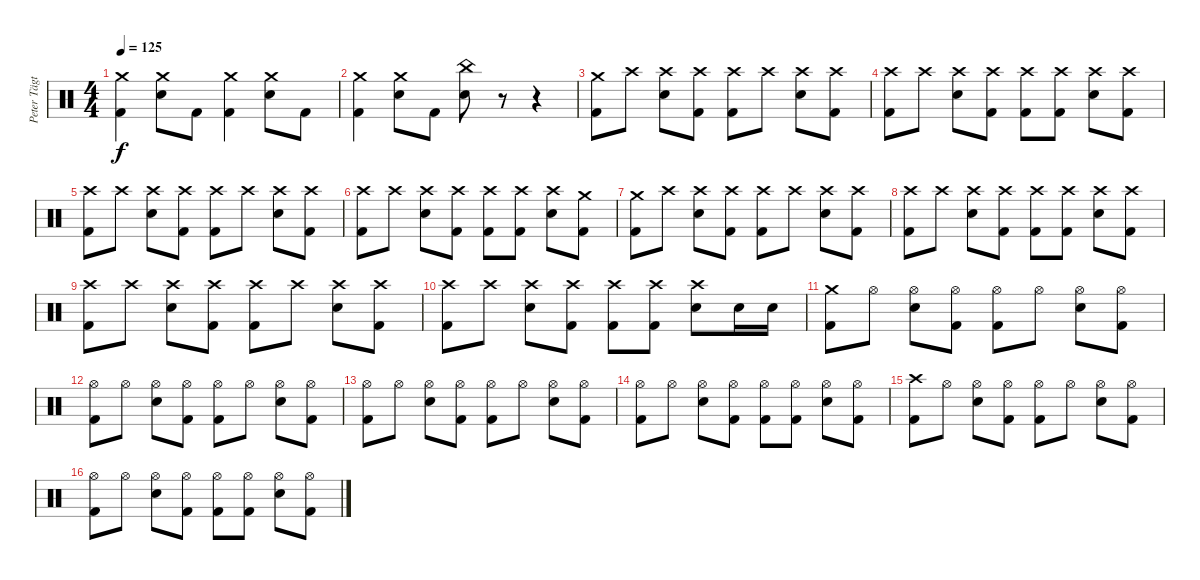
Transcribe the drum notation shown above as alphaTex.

\track ("Peter Tägtgren" "Peter Tägt") {instrument percussion}
\staff {score}
\articulation defaults
\ts (4 4)
\tempo 125
\clef neutral
\ks c
("Crash medium (hit)" "Kick (hit) 2").4{dy f} ("Crash medium (hit)" "Electric Snare (hit)").8 "Kick (hit) 2".8 ("Crash medium (hit)" "Kick (hit) 2").4 ("Crash medium (hit)" "Electric Snare (hit)").8 "Kick (hit) 2".8 |
("Crash medium (hit)" "Kick (hit) 2").4 ("Crash medium (hit)" "Electric Snare (hit)").8 "Kick (hit) 2".8 ("China (hit)" "Electric Snare (hit)").8 r.8 r.4 |
("Crash medium (hit)" "Kick (hit) 2").8 "Crash high (hit)".8 ("Crash high (hit)" "Electric Snare (hit)").8 ("Crash high (hit)" "Kick (hit) 2").8 ("Crash high (hit)" "Kick (hit) 2").8 "Crash high (hit)".8 ("Crash high (hit)" "Electric Snare (hit)").8 ("Crash high (hit)" "Kick (hit) 2").8 |
("Crash high (hit)" "Kick (hit) 2").8 "Crash high (hit)".8 ("Crash high (hit)" "Electric Snare (hit)").8 ("Crash high (hit)" "Kick (hit) 2").8 ("Crash high (hit)" "Kick (hit) 2").8 ("Crash high (hit)" "Kick (hit) 2").8 ("Crash high (hit)" "Electric Snare (hit)").8 ("Crash high (hit)" "Kick (hit) 2").8 |
("Crash high (hit)" "Kick (hit) 2").8 "Crash high (hit)".8 ("Crash high (hit)" "Electric Snare (hit)").8 ("Crash high (hit)" "Kick (hit) 2").8 ("Crash high (hit)" "Kick (hit) 2").8 "Crash high (hit)".8 ("Crash high (hit)" "Electric Snare (hit)").8 ("Crash high (hit)" "Kick (hit) 2").8 |
("Crash high (hit)" "Kick (hit) 2").8 "Crash high (hit)".8 ("Crash high (hit)" "Electric Snare (hit)").8 ("Crash high (hit)" "Kick (hit) 2").8 ("Crash high (hit)" "Kick (hit) 2").8 ("Crash high (hit)" "Kick (hit) 2").8 ("Crash high (hit)" "Electric Snare (hit)").8 ("Crash medium (hit)" "Kick (hit) 2").8 |
("Crash medium (hit)" "Kick (hit) 2").8 "Crash high (hit)".8 ("Crash high (hit)" "Electric Snare (hit)").8 ("Crash high (hit)" "Kick (hit) 2").8 ("Crash high (hit)" "Kick (hit) 2").8 "Crash high (hit)".8 ("Crash high (hit)" "Electric Snare (hit)").8 ("Crash high (hit)" "Kick (hit) 2").8 |
("Crash high (hit)" "Kick (hit) 2").8 "Crash high (hit)".8 ("Crash high (hit)" "Electric Snare (hit)").8 ("Crash high (hit)" "Kick (hit) 2").8 ("Crash high (hit)" "Kick (hit) 2").8 ("Crash high (hit)" "Kick (hit) 2").8 ("Crash high (hit)" "Electric Snare (hit)").8 ("Crash high (hit)" "Kick (hit) 2").8 |
("Crash high (hit)" "Kick (hit) 2").8 "Crash high (hit)".8 ("Crash high (hit)" "Electric Snare (hit)").8 ("Crash high (hit)" "Kick (hit) 2").8 ("Crash high (hit)" "Kick (hit) 2").8 "Crash high (hit)".8 ("Crash high (hit)" "Electric Snare (hit)").8 ("Crash high (hit)" "Kick (hit) 2").8 |
("Crash high (hit)" "Kick (hit) 2").8 "Crash high (hit)".8 ("Crash high (hit)" "Electric Snare (hit)").8 ("Crash high (hit)" "Kick (hit) 2").8 ("Crash high (hit)" "Kick (hit) 2").8 ("Crash high (hit)" "Kick (hit) 2").8 ("Crash high (hit)" "Electric Snare (hit)").8 "Electric Snare (hit)".16 "Electric Snare (hit)".16 |
("Crash medium (hit)" "Kick (hit) 2").8 "Hi-Hat (open)".8 ("Hi-Hat (open)" "Electric Snare (hit)").8 ("Hi-Hat (open)" "Kick (hit) 2").8 ("Hi-Hat (open)" "Kick (hit) 2").8 "Hi-Hat (open)".8 ("Hi-Hat (open)" "Electric Snare (hit)").8 ("Hi-Hat (open)" "Kick (hit) 2").8 |
("Hi-Hat (open)" "Kick (hit) 2").8 "Hi-Hat (open)".8 ("Hi-Hat (open)" "Electric Snare (hit)").8 ("Hi-Hat (open)" "Kick (hit) 2").8 ("Hi-Hat (open)" "Kick (hit) 2").8 "Hi-Hat (open)".8 ("Hi-Hat (open)" "Electric Snare (hit)").8 ("Hi-Hat (open)" "Kick (hit) 2").8 |
("Hi-Hat (open)" "Kick (hit) 2").8 "Hi-Hat (open)".8 ("Hi-Hat (open)" "Electric Snare (hit)").8 ("Hi-Hat (open)" "Kick (hit) 2").8 ("Hi-Hat (open)" "Kick (hit) 2").8 "Hi-Hat (open)".8 ("Hi-Hat (open)" "Electric Snare (hit)").8 ("Hi-Hat (open)" "Kick (hit) 2").8 |
("Hi-Hat (open)" "Kick (hit) 2").8 "Hi-Hat (open)".8 ("Hi-Hat (open)" "Electric Snare (hit)").8 ("Hi-Hat (open)" "Kick (hit) 2").8 ("Hi-Hat (open)" "Kick (hit) 2").8 ("Hi-Hat (open)" "Kick (hit) 2").8 ("Hi-Hat (open)" "Electric Snare (hit)").8 ("Hi-Hat (open)" "Kick (hit) 2").8 |
("Crash high (hit)" "Kick (hit) 2").8 "Hi-Hat (open)".8 ("Hi-Hat (open)" "Electric Snare (hit)").8 ("Hi-Hat (open)" "Kick (hit) 2").8 ("Hi-Hat (open)" "Kick (hit) 2").8 "Hi-Hat (open)".8 ("Hi-Hat (open)" "Electric Snare (hit)").8 ("Hi-Hat (open)" "Kick (hit) 2").8 |
("Hi-Hat (open)" "Kick (hit) 2").8 "Hi-Hat (open)".8 ("Hi-Hat (open)" "Electric Snare (hit)").8 ("Hi-Hat (open)" "Kick (hit) 2").8 ("Hi-Hat (open)" "Kick (hit) 2").8 ("Hi-Hat (open)" "Kick (hit) 2").8 ("Hi-Hat (open)" "Electric Snare (hit)").8 ("Hi-Hat (open)" "Kick (hit) 2").8
